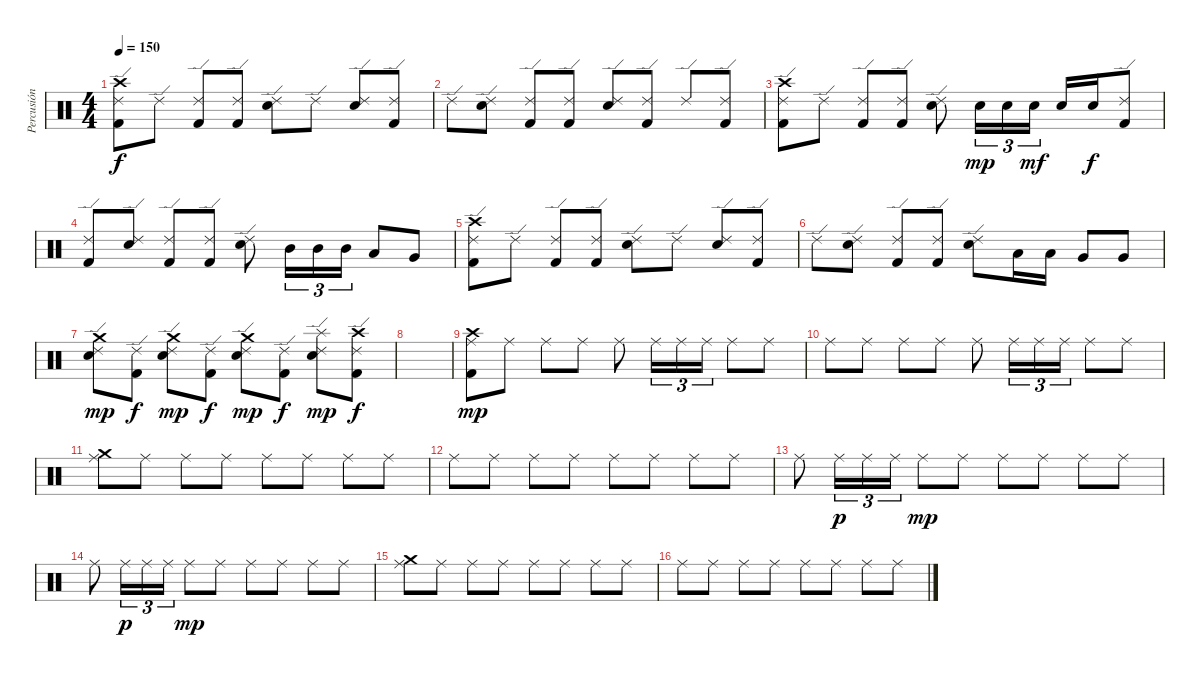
\track ("Percusión" "Percusión") {instrument percussion}
\staff {score}
\articulation defaults
\ts (4 4)
\tempo 150
\clef neutral
\ks c
("Crash high (hit)" "Ride (edge) 2" "Kick (hit) 2").8{dy f} "Ride (edge) 2".8 ("Ride (edge) 2" "Kick (hit) 2").8 ("Ride (edge) 2" "Kick (hit) 2").8 ("Ride (edge) 2" "Snare (hit) 2").8 "Ride (edge) 2".8 ("Ride (edge) 2" "Snare (hit) 2").8 ("Ride (edge) 2" "Kick (hit) 2").8 |
"Ride (edge) 2".8 ("Ride (edge) 2" "Snare (hit) 2").8 ("Ride (edge) 2" "Kick (hit) 2").8 ("Ride (edge) 2" "Kick (hit) 2").8 ("Ride (edge) 2" "Snare (hit) 2").8 ("Ride (edge) 2" "Kick (hit) 2").8 "Ride (edge) 2".8 ("Ride (edge) 2" "Kick (hit) 2").8 |
("Crash high (hit)" "Ride (edge) 2" "Kick (hit) 2").8 "Ride (edge) 2".8 ("Ride (edge) 2" "Kick (hit) 2").8 ("Ride (edge) 2" "Kick (hit) 2").8 ("Ride (edge) 2" "Snare (hit) 2").8 "Snare (hit) 2".16{tu (3 2) dy mp} "Snare (hit) 2".16{tu (3 2)} "Snare (hit) 2".16{tu (3 2) dy mf} "Snare (hit) 2".16 "Snare (hit) 2".16{dy f} ("Ride (edge) 2" "Kick (hit) 2").8 |
("Ride (edge) 2" "Kick (hit) 2").8 ("Ride (edge) 2" "Snare (hit) 2").8 ("Ride (edge) 2" "Kick (hit) 2").8 ("Ride (edge) 2" "Kick (hit) 2").8 ("Ride (edge) 2" "Snare (hit) 2").8 "Mid Tom (hit)".16{tu (3 2)} "Mid Tom (hit)".16{tu (3 2)} "Mid Tom (hit)".16{tu (3 2)} "Low Tom (hit)".8 "Very Low Tom (hit)".8 |
("Crash high (hit)" "Ride (edge) 2" "Kick (hit) 2").8 "Ride (edge) 2".8 ("Ride (edge) 2" "Kick (hit) 2").8 ("Ride (edge) 2" "Kick (hit) 2").8 ("Ride (edge) 2" "Snare (hit) 2").8 "Ride (edge) 2".8 ("Ride (edge) 2" "Snare (hit) 2").8 ("Ride (edge) 2" "Kick (hit) 2").8 |
"Ride (edge) 2".8 ("Ride (edge) 2" "Snare (hit) 2").8 ("Ride (edge) 2" "Kick (hit) 2").8 ("Ride (edge) 2" "Kick (hit) 2").8 ("Ride (edge) 2" "Snare (hit) 2").8 "Low Tom (hit)".16 "Low Tom (hit)".16 "Very Low Tom (hit)".8 "Very Low Tom (hit)".8 |
("Crash medium (hit)" "Ride (edge) 2" "Snare (hit) 2").8{dy mp} ("Ride (edge) 2" "Kick (hit) 2").8{dy f} ("Crash medium (hit)" "Ride (edge) 2" "Snare (hit) 2").8{dy mp} ("Ride (edge) 2" "Kick (hit) 2").8{dy f} ("Crash medium (hit)" "Ride (edge) 2" "Snare (hit) 2").8{dy mp} ("Ride (edge) 2" "Kick (hit) 2").8{dy f} ("Splash (hit)" "Ride (edge) 2" "Snare (hit) 2").8{dy mp} ("Crash high (hit)" "Ride (edge) 2" "Kick (hit) 2").8{dy f} |
|
("Crash high (hit)" "Ride (middle)" "Kick (hit) 2").8{dy mp} "Ride (middle)".8 "Ride (middle)".8 "Ride (middle)".8 "Ride (middle)".8 "Ride (middle)".16{tu (3 2)} "Ride (middle)".16{tu (3 2)} "Ride (middle)".16{tu (3 2)} "Ride (middle)".8 "Ride (middle)".8 |
"Ride (middle)".8 "Ride (middle)".8 "Ride (middle)".8 "Ride (middle)".8 "Ride (middle)".8 "Ride (middle)".16{tu (3 2)} "Ride (middle)".16{tu (3 2)} "Ride (middle)".16{tu (3 2)} "Ride (middle)".8 "Ride (middle)".8 |
("Crash medium (hit)" "Ride (middle)").8 "Ride (middle)".8 "Ride (middle)".8 "Ride (middle)".8 "Ride (middle)".8 "Ride (middle)".8 "Ride (middle)".8 "Ride (middle)".8 |
"Ride (middle)".8 "Ride (middle)".8 "Ride (middle)".8 "Ride (middle)".8 "Ride (middle)".8 "Ride (middle)".8 "Ride (middle)".8 "Ride (middle)".8 |
"Ride (middle)".8 "Ride (middle)".16{tu (3 2) dy p} "Ride (middle)".16{tu (3 2)} "Ride (middle)".16{tu (3 2)} "Ride (middle)".8{dy mp} "Ride (middle)".8 "Ride (middle)".8 "Ride (middle)".8 "Ride (middle)".8 "Ride (middle)".8 |
"Ride (middle)".8 "Ride (middle)".16{tu (3 2) dy p} "Ride (middle)".16{tu (3 2)} "Ride (middle)".16{tu (3 2)} "Ride (middle)".8{dy mp} "Ride (middle)".8 "Ride (middle)".8 "Ride (middle)".8 "Ride (middle)".8 "Ride (middle)".8 |
("Crash medium (hit)" "Ride (middle)").8 "Ride (middle)".8 "Ride (middle)".8 "Ride (middle)".8 "Ride (middle)".8 "Ride (middle)".8 "Ride (middle)".8 "Ride (middle)".8 |
"Ride (middle)".8 "Ride (middle)".8 "Ride (middle)".8 "Ride (middle)".8 "Ride (middle)".8 "Ride (middle)".8 "Ride (middle)".8 "Ride (middle)".8
